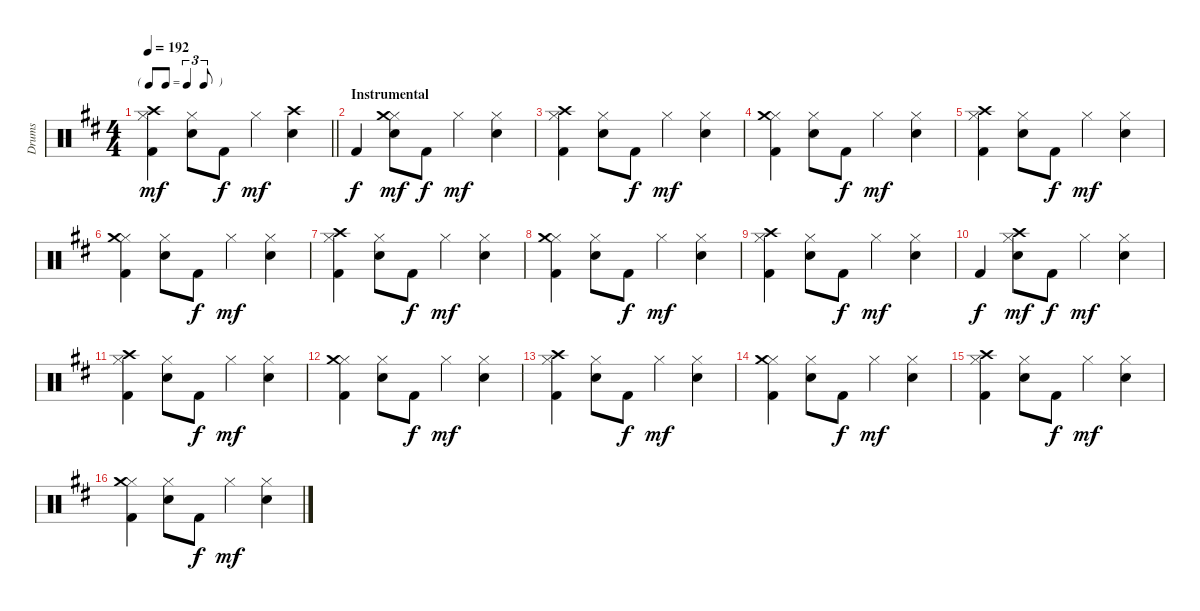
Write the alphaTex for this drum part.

\track ("Drums" "Drums") {instrument percussion}
\staff {score}
\articulation defaults
\ts (4 4)
\tf triplet8th
\tempo 192
\clef neutral
\barLineRight lightlight
\ks bminor
("Hi-Hat (closed)" "Crash high (hit)" "Kick (hit) 2").4{dy mf} ("Hi-Hat (closed)" "Snare (hit) 2").8 "Kick (hit) 2".8{dy f} "Hi-Hat (closed)".4{dy mf} ("Crash high (hit)" "Snare (hit) 2").4 |
\section ("" "Instrumental")
"Kick (hit) 2".4{dy f} ("Hi-Hat (closed)" "Crash medium (hit)" "Snare (hit) 2").8{dy mf} "Kick (hit) 2".8{dy f} "Hi-Hat (closed)".4{dy mf} ("Hi-Hat (closed)" "Snare (hit) 2").4 |
("Hi-Hat (closed)" "Crash high (hit)" "Kick (hit) 2").4 ("Hi-Hat (closed)" "Snare (hit) 2").8 "Kick (hit) 2".8{dy f} "Hi-Hat (closed)".4{dy mf} ("Hi-Hat (closed)" "Snare (hit) 2").4 |
("Hi-Hat (closed)" "Crash medium (hit)" "Kick (hit) 2").4 ("Hi-Hat (closed)" "Snare (hit) 2").8 "Kick (hit) 2".8{dy f} "Hi-Hat (closed)".4{dy mf} ("Hi-Hat (closed)" "Snare (hit) 2").4 |
("Hi-Hat (closed)" "Crash high (hit)" "Kick (hit) 2").4 ("Hi-Hat (closed)" "Snare (hit) 2").8 "Kick (hit) 2".8{dy f} "Hi-Hat (closed)".4{dy mf} ("Hi-Hat (closed)" "Snare (hit) 2").4 |
("Hi-Hat (closed)" "Crash medium (hit)" "Kick (hit) 2").4 ("Hi-Hat (closed)" "Snare (hit) 2").8 "Kick (hit) 2".8{dy f} "Hi-Hat (closed)".4{dy mf} ("Hi-Hat (closed)" "Snare (hit) 2").4 |
("Hi-Hat (closed)" "Crash high (hit)" "Kick (hit) 2").4 ("Hi-Hat (closed)" "Snare (hit) 2").8 "Kick (hit) 2".8{dy f} "Hi-Hat (closed)".4{dy mf} ("Hi-Hat (closed)" "Snare (hit) 2").4 |
("Hi-Hat (closed)" "Crash medium (hit)" "Kick (hit) 2").4 ("Hi-Hat (closed)" "Snare (hit) 2").8 "Kick (hit) 2".8{dy f} "Hi-Hat (closed)".4{dy mf} ("Hi-Hat (closed)" "Snare (hit) 2").4 |
("Hi-Hat (closed)" "Crash high (hit)" "Kick (hit) 2").4 ("Hi-Hat (closed)" "Snare (hit) 2").8 "Kick (hit) 2".8{dy f} "Hi-Hat (closed)".4{dy mf} ("Hi-Hat (closed)" "Snare (hit) 2").4 |
"Kick (hit) 2".4{dy f} ("Hi-Hat (closed)" "Crash high (hit)" "Snare (hit) 2").8{dy mf} "Kick (hit) 2".8{dy f} "Hi-Hat (closed)".4{dy mf} ("Hi-Hat (closed)" "Snare (hit) 2").4 |
("Hi-Hat (closed)" "Crash high (hit)" "Kick (hit) 2").4 ("Hi-Hat (closed)" "Snare (hit) 2").8 "Kick (hit) 2".8{dy f} "Hi-Hat (closed)".4{dy mf} ("Hi-Hat (closed)" "Snare (hit) 2").4 |
("Hi-Hat (closed)" "Crash medium (hit)" "Kick (hit) 2").4 ("Hi-Hat (closed)" "Snare (hit) 2").8 "Kick (hit) 2".8{dy f} "Hi-Hat (closed)".4{dy mf} ("Hi-Hat (closed)" "Snare (hit) 2").4 |
("Hi-Hat (closed)" "Crash high (hit)" "Kick (hit) 2").4 ("Hi-Hat (closed)" "Snare (hit) 2").8 "Kick (hit) 2".8{dy f} "Hi-Hat (closed)".4{dy mf} ("Hi-Hat (closed)" "Snare (hit) 2").4 |
("Hi-Hat (closed)" "Crash medium (hit)" "Kick (hit) 2").4 ("Hi-Hat (closed)" "Snare (hit) 2").8 "Kick (hit) 2".8{dy f} "Hi-Hat (closed)".4{dy mf} ("Hi-Hat (closed)" "Snare (hit) 2").4 |
("Hi-Hat (closed)" "Crash high (hit)" "Kick (hit) 2").4 ("Hi-Hat (closed)" "Snare (hit) 2").8 "Kick (hit) 2".8{dy f} "Hi-Hat (closed)".4{dy mf} ("Hi-Hat (closed)" "Snare (hit) 2").4 |
("Hi-Hat (closed)" "Crash medium (hit)" "Kick (hit) 2").4 ("Hi-Hat (closed)" "Snare (hit) 2").8 "Kick (hit) 2".8{dy f} "Hi-Hat (closed)".4{dy mf} ("Hi-Hat (closed)" "Snare (hit) 2").4
